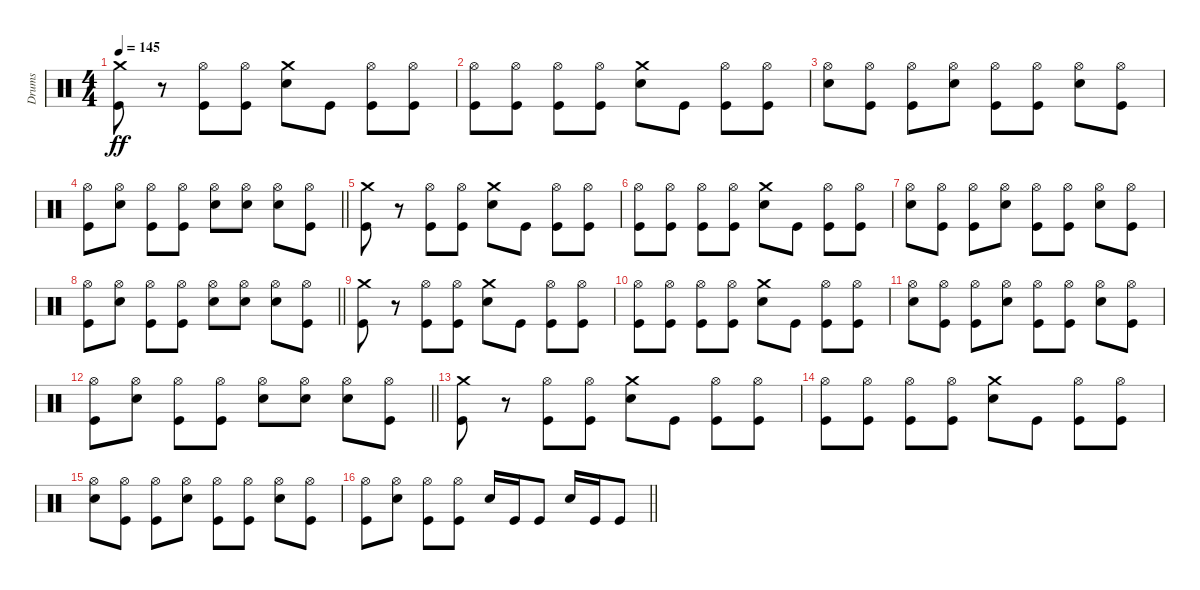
\track ("Drums" "Drums") {instrument percussion}
\staff {score}
\articulation defaults
\ts (4 4)
\tempo 145
\clef neutral
\ks c
("Kick (hit)" "Crash medium (hit)").8{dy ff} r.8 ("Hi-Hat (open)" "Kick (hit)").8 ("Hi-Hat (open)" "Kick (hit)").8 ("Snare (hit) 2" "Crash medium (hit)").8 "Kick (hit)".8 ("Hi-Hat (open)" "Kick (hit)").8 ("Hi-Hat (open)" "Kick (hit)").8 |
("Hi-Hat (open)" "Kick (hit)").8 ("Hi-Hat (open)" "Kick (hit)").8 ("Kick (hit)" "Hi-Hat (open)").8 ("Hi-Hat (open)" "Kick (hit)").8 ("Snare (hit) 2" "Crash medium (hit)").8 "Kick (hit)".8 ("Hi-Hat (open)" "Kick (hit)").8 ("Hi-Hat (open)" "Kick (hit)").8 |
("Hi-Hat (open)" "Snare (hit) 2").8 ("Hi-Hat (open)" "Kick (hit)").8 ("Hi-Hat (open)" "Kick (hit)").8 ("Snare (hit) 2" "Hi-Hat (open)").8 ("Hi-Hat (open)" "Kick (hit)").8 ("Hi-Hat (open)" "Kick (hit)").8 ("Snare (hit) 2" "Hi-Hat (open)").8 ("Hi-Hat (open)" "Kick (hit)").8 |
\barLineRight lightlight
("Hi-Hat (open)" "Kick (hit)").8 ("Snare (hit) 2" "Hi-Hat (open)").8 ("Hi-Hat (open)" "Kick (hit)").8 ("Hi-Hat (open)" "Kick (hit)").8 ("Hi-Hat (open)" "Snare (hit) 2").8 ("Hi-Hat (open)" "Snare (hit) 2").8 ("Hi-Hat (open)" "Snare (hit) 2").8 ("Hi-Hat (open)" "Kick (hit)").8 |
("Kick (hit)" "Crash medium (hit)").8 r.8 ("Hi-Hat (open)" "Kick (hit)").8 ("Hi-Hat (open)" "Kick (hit)").8 ("Snare (hit) 2" "Crash medium (hit)").8 "Kick (hit)".8 ("Hi-Hat (open)" "Kick (hit)").8 ("Hi-Hat (open)" "Kick (hit)").8 |
("Hi-Hat (open)" "Kick (hit)").8 ("Hi-Hat (open)" "Kick (hit)").8 ("Kick (hit)" "Hi-Hat (open)").8 ("Hi-Hat (open)" "Kick (hit)").8 ("Snare (hit) 2" "Crash medium (hit)").8 "Kick (hit)".8 ("Hi-Hat (open)" "Kick (hit)").8 ("Hi-Hat (open)" "Kick (hit)").8 |
("Hi-Hat (open)" "Snare (hit) 2").8 ("Hi-Hat (open)" "Kick (hit)").8 ("Hi-Hat (open)" "Kick (hit)").8 ("Snare (hit) 2" "Hi-Hat (open)").8 ("Hi-Hat (open)" "Kick (hit)").8 ("Hi-Hat (open)" "Kick (hit)").8 ("Snare (hit) 2" "Hi-Hat (open)").8 ("Hi-Hat (open)" "Kick (hit)").8 |
\barLineRight lightlight
("Hi-Hat (open)" "Kick (hit)").8 ("Snare (hit) 2" "Hi-Hat (open)").8 ("Hi-Hat (open)" "Kick (hit)").8 ("Hi-Hat (open)" "Kick (hit)").8 ("Hi-Hat (open)" "Snare (hit) 2").8 ("Hi-Hat (open)" "Snare (hit) 2").8 ("Hi-Hat (open)" "Snare (hit) 2").8 ("Hi-Hat (open)" "Kick (hit)").8 |
("Kick (hit)" "Crash medium (hit)").8 r.8 ("Hi-Hat (open)" "Kick (hit)").8 ("Hi-Hat (open)" "Kick (hit)").8 ("Snare (hit) 2" "Crash medium (hit)").8 "Kick (hit)".8 ("Hi-Hat (open)" "Kick (hit)").8 ("Hi-Hat (open)" "Kick (hit)").8 |
("Hi-Hat (open)" "Kick (hit)").8 ("Hi-Hat (open)" "Kick (hit)").8 ("Kick (hit)" "Hi-Hat (open)").8 ("Hi-Hat (open)" "Kick (hit)").8 ("Snare (hit) 2" "Crash medium (hit)").8 "Kick (hit)".8 ("Hi-Hat (open)" "Kick (hit)").8 ("Hi-Hat (open)" "Kick (hit)").8 |
("Hi-Hat (open)" "Snare (hit) 2").8 ("Hi-Hat (open)" "Kick (hit)").8 ("Hi-Hat (open)" "Kick (hit)").8 ("Snare (hit) 2" "Hi-Hat (open)").8 ("Hi-Hat (open)" "Kick (hit)").8 ("Hi-Hat (open)" "Kick (hit)").8 ("Snare (hit) 2" "Hi-Hat (open)").8 ("Hi-Hat (open)" "Kick (hit)").8 |
\barLineRight lightlight
("Hi-Hat (open)" "Kick (hit)").8 ("Snare (hit) 2" "Hi-Hat (open)").8 ("Hi-Hat (open)" "Kick (hit)").8 ("Hi-Hat (open)" "Kick (hit)").8 ("Hi-Hat (open)" "Snare (hit) 2").8 ("Hi-Hat (open)" "Snare (hit) 2").8 ("Hi-Hat (open)" "Snare (hit) 2").8 ("Hi-Hat (open)" "Kick (hit)").8 |
("Kick (hit)" "Crash medium (hit)").8 r.8 ("Hi-Hat (open)" "Kick (hit)").8 ("Hi-Hat (open)" "Kick (hit)").8 ("Snare (hit) 2" "Crash medium (hit)").8 "Kick (hit)".8 ("Hi-Hat (open)" "Kick (hit)").8 ("Hi-Hat (open)" "Kick (hit)").8 |
("Hi-Hat (open)" "Kick (hit)").8 ("Hi-Hat (open)" "Kick (hit)").8 ("Kick (hit)" "Hi-Hat (open)").8 ("Hi-Hat (open)" "Kick (hit)").8 ("Snare (hit) 2" "Crash medium (hit)").8 "Kick (hit)".8 ("Hi-Hat (open)" "Kick (hit)").8 ("Hi-Hat (open)" "Kick (hit)").8 |
("Hi-Hat (open)" "Snare (hit) 2").8 ("Hi-Hat (open)" "Kick (hit)").8 ("Hi-Hat (open)" "Kick (hit)").8 ("Snare (hit) 2" "Hi-Hat (open)").8 ("Hi-Hat (open)" "Kick (hit)").8 ("Hi-Hat (open)" "Kick (hit)").8 ("Snare (hit) 2" "Hi-Hat (open)").8 ("Hi-Hat (open)" "Kick (hit)").8 |
\barLineRight lightlight
("Hi-Hat (open)" "Kick (hit)").8 ("Snare (hit) 2" "Hi-Hat (open)").8 ("Hi-Hat (open)" "Kick (hit)").8 ("Hi-Hat (open)" "Kick (hit)").8 "Snare (hit) 2".16 "Kick (hit)".16 "Kick (hit)".8 "Snare (hit) 2".16 "Kick (hit)".16 "Kick (hit)".8
